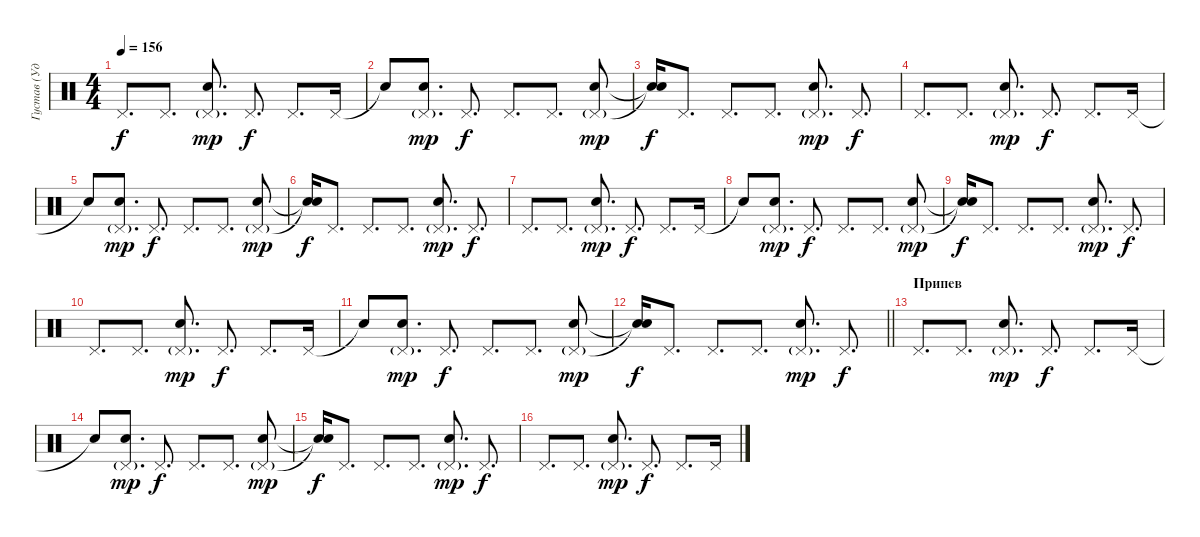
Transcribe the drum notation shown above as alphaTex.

\track ("Густав (Ударные)" "Густав (Уд") {instrument percussion}
\staff {score}
\articulation defaults
\ts (4 4)
\tempo 156
\clef neutral
\ks c "Pedal Hi-Hat (hit)".8{d dy f} "Pedal Hi-Hat (hit)".8{d}
("Pedal Hi-Hat (hit)"{g} "Electric Snare (hit)").8{d dy mp} "Pedal Hi-Hat (hit)".8{d dy f} "Pedal Hi-Hat (hit)".8{d} "Pedal Hi-Hat (hit)".16 |
"Snare (hit)"{t}.8 ("Pedal Hi-Hat (hit)"{g} "Electric Snare (hit)").8{d dy mp} "Pedal Hi-Hat (hit)".8{d dy f} "Pedal Hi-Hat (hit)".8{d} "Pedal Hi-Hat (hit)".8{d} ("Pedal Hi-Hat (hit)"{g} "Electric Snare (hit)").8{dy mp} |
("Snare (hit)"{t} "Snare (hit)"{t}).16{dy f} "Pedal Hi-Hat (hit)".8{d} "Pedal Hi-Hat (hit)".8{d} "Pedal Hi-Hat (hit)".8{d} ("Pedal Hi-Hat (hit)"{g} "Electric Snare (hit)").8{d dy mp} "Pedal Hi-Hat (hit)".8{d dy f} |
"Pedal Hi-Hat (hit)".8{d} "Pedal Hi-Hat (hit)".8{d} ("Pedal Hi-Hat (hit)"{g} "Electric Snare (hit)").8{d dy mp} "Pedal Hi-Hat (hit)".8{d dy f} "Pedal Hi-Hat (hit)".8{d} "Pedal Hi-Hat (hit)".16 |
"Snare (hit)"{t}.8 ("Pedal Hi-Hat (hit)"{g} "Electric Snare (hit)").8{d dy mp} "Pedal Hi-Hat (hit)".8{d dy f} "Pedal Hi-Hat (hit)".8{d} "Pedal Hi-Hat (hit)".8{d} ("Pedal Hi-Hat (hit)"{g} "Electric Snare (hit)").8{dy mp} |
("Snare (hit)"{t} "Snare (hit)"{t}).16{dy f} "Pedal Hi-Hat (hit)".8{d} "Pedal Hi-Hat (hit)".8{d} "Pedal Hi-Hat (hit)".8{d} ("Pedal Hi-Hat (hit)"{g} "Electric Snare (hit)").8{d dy mp} "Pedal Hi-Hat (hit)".8{d dy f} |
"Pedal Hi-Hat (hit)".8{d} "Pedal Hi-Hat (hit)".8{d} ("Pedal Hi-Hat (hit)"{g} "Electric Snare (hit)").8{d dy mp} "Pedal Hi-Hat (hit)".8{d dy f} "Pedal Hi-Hat (hit)".8{d} "Pedal Hi-Hat (hit)".16 |
"Snare (hit)"{t}.8 ("Pedal Hi-Hat (hit)"{g} "Electric Snare (hit)").8{d dy mp} "Pedal Hi-Hat (hit)".8{d dy f} "Pedal Hi-Hat (hit)".8{d} "Pedal Hi-Hat (hit)".8{d} ("Pedal Hi-Hat (hit)"{g} "Electric Snare (hit)").8{dy mp} |
("Snare (hit)"{t} "Snare (hit)"{t}).16{dy f} "Pedal Hi-Hat (hit)".8{d} "Pedal Hi-Hat (hit)".8{d} "Pedal Hi-Hat (hit)".8{d} ("Pedal Hi-Hat (hit)"{g} "Electric Snare (hit)").8{d dy mp} "Pedal Hi-Hat (hit)".8{d dy f} |
"Pedal Hi-Hat (hit)".8{d} "Pedal Hi-Hat (hit)".8{d} ("Pedal Hi-Hat (hit)"{g} "Electric Snare (hit)").8{d dy mp} "Pedal Hi-Hat (hit)".8{d dy f} "Pedal Hi-Hat (hit)".8{d} "Pedal Hi-Hat (hit)".16 |
"Snare (hit)"{t}.8 ("Pedal Hi-Hat (hit)"{g} "Electric Snare (hit)").8{d dy mp} "Pedal Hi-Hat (hit)".8{d dy f} "Pedal Hi-Hat (hit)".8{d} "Pedal Hi-Hat (hit)".8{d} ("Pedal Hi-Hat (hit)"{g} "Electric Snare (hit)").8{dy mp} |
\barLineRight lightlight
("Snare (hit)"{t} "Snare (hit)"{t}).16{dy f} "Pedal Hi-Hat (hit)".8{d} "Pedal Hi-Hat (hit)".8{d} "Pedal Hi-Hat (hit)".8{d} ("Pedal Hi-Hat (hit)"{g} "Electric Snare (hit)").8{d dy mp} "Pedal Hi-Hat (hit)".8{d dy f} |
\section ("" "Припев")
"Pedal Hi-Hat (hit)".8{d} "Pedal Hi-Hat (hit)".8{d} ("Pedal Hi-Hat (hit)"{g} "Electric Snare (hit)").8{d dy mp} "Pedal Hi-Hat (hit)".8{d dy f} "Pedal Hi-Hat (hit)".8{d} "Pedal Hi-Hat (hit)".16 |
"Snare (hit)"{t}.8 ("Pedal Hi-Hat (hit)"{g} "Electric Snare (hit)").8{d dy mp} "Pedal Hi-Hat (hit)".8{d dy f} "Pedal Hi-Hat (hit)".8{d} "Pedal Hi-Hat (hit)".8{d} ("Pedal Hi-Hat (hit)"{g} "Electric Snare (hit)").8{dy mp} |
("Snare (hit)"{t} "Snare (hit)"{t}).16{dy f} "Pedal Hi-Hat (hit)".8{d} "Pedal Hi-Hat (hit)".8{d} "Pedal Hi-Hat (hit)".8{d} ("Pedal Hi-Hat (hit)"{g} "Electric Snare (hit)").8{d dy mp} "Pedal Hi-Hat (hit)".8{d dy f} |
"Pedal Hi-Hat (hit)".8{d} "Pedal Hi-Hat (hit)".8{d} ("Pedal Hi-Hat (hit)"{g} "Electric Snare (hit)").8{d dy mp} "Pedal Hi-Hat (hit)".8{d dy f} "Pedal Hi-Hat (hit)".8{d} "Pedal Hi-Hat (hit)".16
